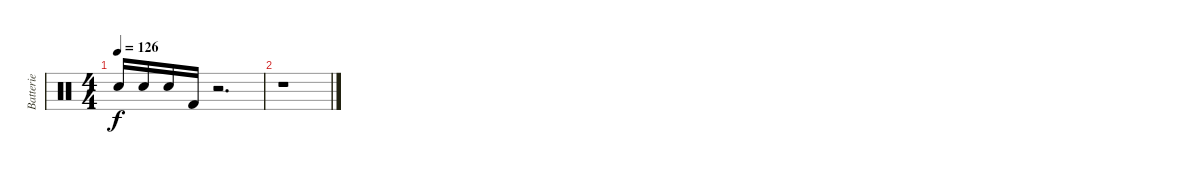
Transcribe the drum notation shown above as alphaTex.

\track ("Batterie" "Batterie") {instrument percussion}
\staff {score}
\articulation defaults
\ts (4 4)
\tempo 126
\clef neutral
\ks c "Snare (hit) 2".16{dy f} "Snare (hit) 2".16 "Snare (hit) 2".16 "Kick (hit) 2".16
r.2{d} |
r.1
